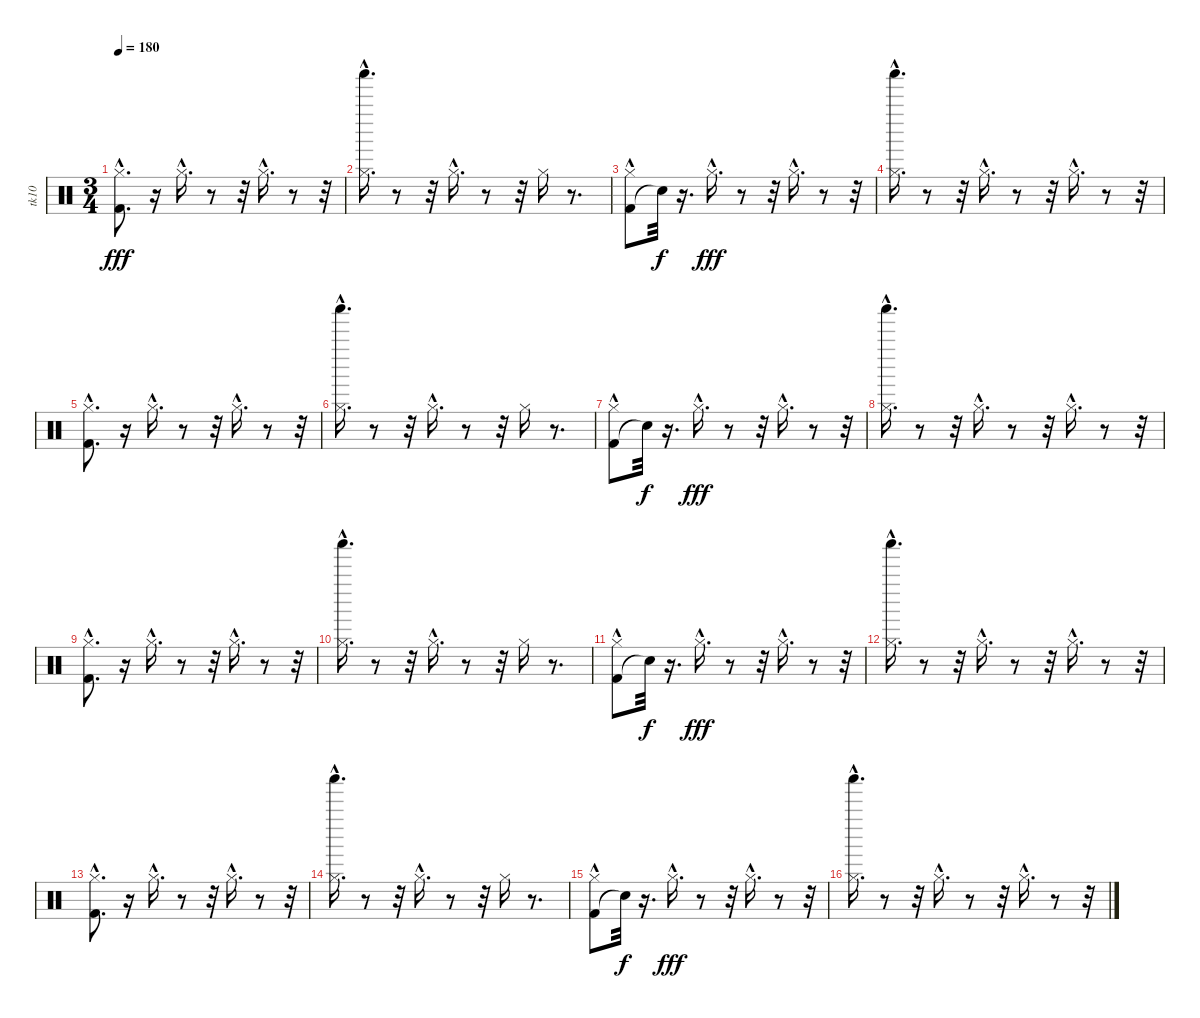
\track ("tk10" "tk10") {instrument percussion}
\staff {score}
\articulation defaults
\ts (3 4)
\tempo 180
\clef neutral
\ks c
("Kick (hit) 2"{hac} "Hi-Hat (closed)"{hac}).8{d dy fff} r.16 "Hi-Hat (closed)"{hac}.16{d} r.8 r.32 "Hi-Hat (closed)"{hac}.16{d} r.8 r.32 |
("Shaker (hit)"{hac} "Hi-Hat (closed)"{hac}).16{d} r.8 r.32 "Hi-Hat (closed)"{hac}.16{d} r.8 r.32 "Hi-Hat (closed)".16 r.8{d} |
("Kick (hit) 2" "Hi-Hat (closed)"{hac}).8 "Snare (hit)"{t}.32{dy f} r.16{d} "Hi-Hat (closed)"{hac}.16{d dy fff} r.8 r.32 "Hi-Hat (closed)"{hac}.16{d} r.8 r.32 |
("Shaker (hit)"{hac} "Hi-Hat (closed)"{hac}).16{d} r.8 r.32 "Hi-Hat (closed)"{hac}.16{d} r.8 r.32 "Hi-Hat (closed)"{hac}.16{d} r.8 r.32 |
("Kick (hit) 2"{hac} "Hi-Hat (closed)"{hac}).8{d} r.16 "Hi-Hat (closed)"{hac}.16{d} r.8 r.32 "Hi-Hat (closed)"{hac}.16{d} r.8 r.32 |
("Shaker (hit)"{hac} "Hi-Hat (closed)"{hac}).16{d} r.8 r.32 "Hi-Hat (closed)"{hac}.16{d} r.8 r.32 "Hi-Hat (closed)".16 r.8{d} |
("Kick (hit) 2" "Hi-Hat (closed)"{hac}).8 "Snare (hit)"{t}.32{dy f} r.16{d} "Hi-Hat (closed)"{hac}.16{d dy fff} r.8 r.32 "Hi-Hat (closed)"{hac}.16{d} r.8 r.32 |
("Shaker (hit)"{hac} "Hi-Hat (closed)"{hac}).16{d} r.8 r.32 "Hi-Hat (closed)"{hac}.16{d} r.8 r.32 "Hi-Hat (closed)"{hac}.16{d} r.8 r.32 |
("Kick (hit) 2"{hac} "Hi-Hat (closed)"{hac}).8{d} r.16 "Hi-Hat (closed)"{hac}.16{d} r.8 r.32 "Hi-Hat (closed)"{hac}.16{d} r.8 r.32 |
("Shaker (hit)"{hac} "Hi-Hat (closed)"{hac}).16{d} r.8 r.32 "Hi-Hat (closed)"{hac}.16{d} r.8 r.32 "Hi-Hat (closed)".16 r.8{d} |
("Kick (hit) 2" "Hi-Hat (closed)"{hac}).8 "Snare (hit)"{t}.32{dy f} r.16{d} "Hi-Hat (closed)"{hac}.16{d dy fff} r.8 r.32 "Hi-Hat (closed)"{hac}.16{d} r.8 r.32 |
("Shaker (hit)"{hac} "Hi-Hat (closed)"{hac}).16{d} r.8 r.32 "Hi-Hat (closed)"{hac}.16{d} r.8 r.32 "Hi-Hat (closed)"{hac}.16{d} r.8 r.32 |
("Kick (hit) 2"{hac} "Hi-Hat (closed)"{hac}).8{d} r.16 "Hi-Hat (closed)"{hac}.16{d} r.8 r.32 "Hi-Hat (closed)"{hac}.16{d} r.8 r.32 |
("Shaker (hit)"{hac} "Hi-Hat (closed)"{hac}).16{d} r.8 r.32 "Hi-Hat (closed)"{hac}.16{d} r.8 r.32 "Hi-Hat (closed)".16 r.8{d} |
("Kick (hit) 2" "Hi-Hat (closed)"{hac}).8 "Snare (hit)"{t}.32{dy f} r.16{d} "Hi-Hat (closed)"{hac}.16{d dy fff} r.8 r.32 "Hi-Hat (closed)"{hac}.16{d} r.8 r.32 |
("Shaker (hit)"{hac} "Hi-Hat (closed)"{hac}).16{d} r.8 r.32 "Hi-Hat (closed)"{hac}.16{d} r.8 r.32 "Hi-Hat (closed)"{hac}.16{d} r.8 r.32
